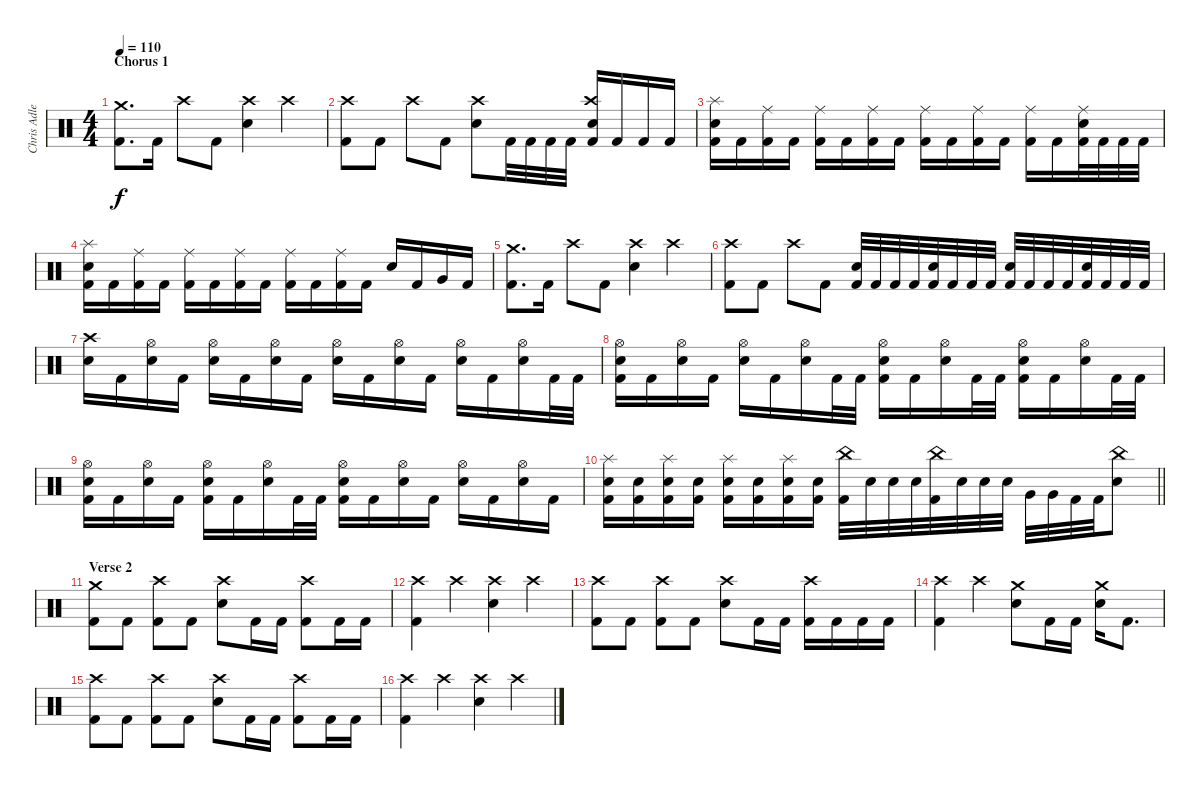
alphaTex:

\track ("Chris Adler" "Chris Adle") {instrument percussion}
\staff {score}
\articulation defaults
\ts (4 4)
\section ("" "Chorus 1")
\tempo 110
\clef neutral
\ks c
("Crash medium (hit)" "Kick (hit) 2").8{d dy f} "Kick (hit) 2".16 "Crash high (hit)".8 "Kick (hit) 2".8 ("Crash high (hit)" "Electric Snare (hit)").4 "Crash high (hit)".4 |
("Crash high (hit)" "Kick (hit) 2").8 "Kick (hit) 2".8 "Crash high (hit)".8 "Kick (hit) 2".8 ("Crash high (hit)" "Electric Snare (hit)").8 "Kick (hit) 2".32 "Kick (hit) 2".32 "Kick (hit) 2".32 "Kick (hit) 2".32 ("Crash high (hit)" "Electric Snare (hit)" "Kick (hit) 2").16 "Kick (hit) 2".16 "Kick (hit) 2".16 "Kick (hit) 2".16 |
("Splash (hit)" "Electric Snare (hit)" "Kick (hit) 2").16 "Kick (hit) 2".16 ("Ride (middle)" "Kick (hit) 2").16 "Kick (hit) 2".16 ("Ride (middle)" "Kick (hit) 2").16 "Kick (hit) 2".16 ("Ride (middle)" "Kick (hit) 2").16 "Kick (hit) 2".16 ("Ride (middle)" "Kick (hit) 2").16 "Kick (hit) 2".16 ("Ride (middle)" "Kick (hit) 2").16 "Kick (hit) 2".16 ("Ride (middle)" "Kick (hit) 2").16 "Kick (hit) 2".16 ("Ride (middle)" "Electric Snare (hit)" "Kick (hit) 2").32 "Kick (hit) 2".32 "Kick (hit) 2".32 "Kick (hit) 2".32 |
("Splash (hit)" "Electric Snare (hit)" "Kick (hit) 2").16 "Kick (hit) 2".16 ("Ride (middle)" "Kick (hit) 2").16 "Kick (hit) 2".16 ("Ride (middle)" "Kick (hit) 2").16 "Kick (hit) 2".16 ("Ride (middle)" "Kick (hit) 2").16 "Kick (hit) 2".16 ("Ride (middle)" "Kick (hit) 2").16 "Kick (hit) 2".16 ("Ride (middle)" "Kick (hit) 2").16 "Kick (hit) 2".16 "Electric Snare (hit)".16 "Kick (hit) 2".16 "Very Low Tom (hit)".16 "Kick (hit) 2".16 |
("Crash medium (hit)" "Kick (hit) 2").8{d} "Kick (hit) 2".16 "Crash high (hit)".8 "Kick (hit) 2".8 ("Crash high (hit)" "Electric Snare (hit)").4 "Crash high (hit)".4 |
("Crash high (hit)" "Kick (hit) 2").8 "Kick (hit) 2".8 "Crash high (hit)".8 "Kick (hit) 2".8 ("Electric Snare (hit)" "Kick (hit) 2").32 "Kick (hit) 2".32 "Kick (hit) 2".32 "Kick (hit) 2".32 ("Electric Snare (hit)" "Kick (hit) 2").32 "Kick (hit) 2".32 "Kick (hit) 2".32 "Kick (hit) 2".32 ("Electric Snare (hit)" "Kick (hit) 2").32 "Kick (hit) 2".32 "Kick (hit) 2".32 "Kick (hit) 2".32 ("Electric Snare (hit)" "Kick (hit) 2").32 "Kick (hit) 2".32 "Kick (hit) 2".32 "Kick (hit) 2".32 |
("Crash high (hit)" "Electric Snare (hit)").16 "Kick (hit) 2".16 ("Hi-Hat (open)" "Electric Snare (hit)").16 "Kick (hit) 2".16 ("Hi-Hat (open)" "Electric Snare (hit)").16 "Kick (hit) 2".16 ("Hi-Hat (open)" "Electric Snare (hit)").16 "Kick (hit) 2".16 ("Hi-Hat (open)" "Electric Snare (hit)").16 "Kick (hit) 2".16 ("Hi-Hat (open)" "Electric Snare (hit)").16 "Kick (hit) 2".16 ("Hi-Hat (open)" "Electric Snare (hit)").16 "Kick (hit) 2".16 ("Hi-Hat (open)" "Electric Snare (hit)").16 "Kick (hit) 2".32 "Kick (hit) 2".32 |
("Hi-Hat (open)" "Electric Snare (hit)" "Kick (hit) 2").16 "Kick (hit) 2".16 ("Hi-Hat (open)" "Electric Snare (hit)").16 "Kick (hit) 2".16 ("Hi-Hat (open)" "Electric Snare (hit)").16 "Kick (hit) 2".16 ("Hi-Hat (open)" "Electric Snare (hit)").16 "Kick (hit) 2".32 "Kick (hit) 2".32 ("Hi-Hat (open)" "Electric Snare (hit)" "Kick (hit) 2").16 "Kick (hit) 2".16 ("Hi-Hat (open)" "Electric Snare (hit)").16 "Kick (hit) 2".32 "Kick (hit) 2".32 ("Hi-Hat (open)" "Electric Snare (hit)" "Kick (hit) 2").16 "Kick (hit) 2".16 ("Hi-Hat (open)" "Electric Snare (hit)").16 "Kick (hit) 2".32 "Kick (hit) 2".32 |
("Hi-Hat (open)" "Electric Snare (hit)" "Kick (hit) 2").16 "Kick (hit) 2".16 ("Hi-Hat (open)" "Electric Snare (hit)").16 "Kick (hit) 2".16 ("Hi-Hat (open)" "Electric Snare (hit)" "Kick (hit) 2").16 "Kick (hit) 2".16 ("Hi-Hat (open)" "Electric Snare (hit)").16 "Kick (hit) 2".32 "Kick (hit) 2".32 ("Hi-Hat (open)" "Electric Snare (hit)" "Kick (hit) 2").16 "Kick (hit) 2".16 ("Hi-Hat (open)" "Electric Snare (hit)").16 "Kick (hit) 2".16 ("Hi-Hat (open)" "Electric Snare (hit)").16 "Kick (hit) 2".16 ("Hi-Hat (open)" "Electric Snare (hit)").16 "Kick (hit) 2".16 |
\barLineRight lightlight
("Splash (hit)" "Electric Snare (hit)" "Kick (hit) 2").16 ("Electric Snare (hit)" "Kick (hit) 2").16 ("Splash (hit)" "Electric Snare (hit)" "Kick (hit) 2").16 ("Electric Snare (hit)" "Kick (hit) 2").16 ("Splash (hit)" "Electric Snare (hit)" "Kick (hit) 2").16 ("Electric Snare (hit)" "Kick (hit) 2").16 ("Splash (hit)" "Electric Snare (hit)" "Kick (hit) 2").16 ("Electric Snare (hit)" "Kick (hit) 2").16 ("China (hit)" "Kick (hit) 2").32 "Electric Snare (hit)".32 "Electric Snare (hit)".32 "Electric Snare (hit)".32 ("China (hit)" "Kick (hit) 2").32 "Electric Snare (hit)".32 "Electric Snare (hit)".32 "Electric Snare (hit)".32 "Very Low Tom (hit)".32 "Very Low Tom (hit)".32 "Kick (hit) 2".32 "Kick (hit) 2".32 ("China (hit)" "Electric Snare (hit)").8 |
\section ("" "Verse 2")
("Crash medium (hit)" "Kick (hit) 2").8 "Kick (hit) 2".8 ("Crash high (hit)" "Kick (hit) 2").8 "Kick (hit) 2".8 ("Crash high (hit)" "Electric Snare (hit)").8 "Kick (hit) 2".16 "Kick (hit) 2".16 ("Crash high (hit)" "Kick (hit) 2").8 "Kick (hit) 2".16 "Kick (hit) 2".16 |
("Crash high (hit)" "Kick (hit) 2").4 "Crash high (hit)".4 ("Crash high (hit)" "Electric Snare (hit)").4 "Crash high (hit)".4 |
("Crash high (hit)" "Kick (hit) 2").8 "Kick (hit) 2".8 ("Crash high (hit)" "Kick (hit) 2").8 "Kick (hit) 2".8 ("Crash high (hit)" "Electric Snare (hit)").8 "Kick (hit) 2".16 "Kick (hit) 2".16 ("Crash high (hit)" "Kick (hit) 2").16 "Kick (hit) 2".16 "Kick (hit) 2".16 "Kick (hit) 2".16 |
("Crash high (hit)" "Kick (hit) 2").4 "Crash high (hit)".4 ("Crash medium (hit)" "Electric Snare (hit)").8 "Kick (hit) 2".16 "Kick (hit) 2".16 ("Crash medium (hit)" "Electric Snare (hit)").16 "Kick (hit) 2".8{d} |
("Crash high (hit)" "Kick (hit) 2").8 "Kick (hit) 2".8 ("Crash high (hit)" "Kick (hit) 2").8 "Kick (hit) 2".8 ("Crash high (hit)" "Electric Snare (hit)").8 "Kick (hit) 2".16 "Kick (hit) 2".16 ("Crash high (hit)" "Kick (hit) 2").8 "Kick (hit) 2".16 "Kick (hit) 2".16 |
("Crash high (hit)" "Kick (hit) 2").4 "Crash high (hit)".4 ("Crash high (hit)" "Electric Snare (hit)").4 "Crash high (hit)".4
